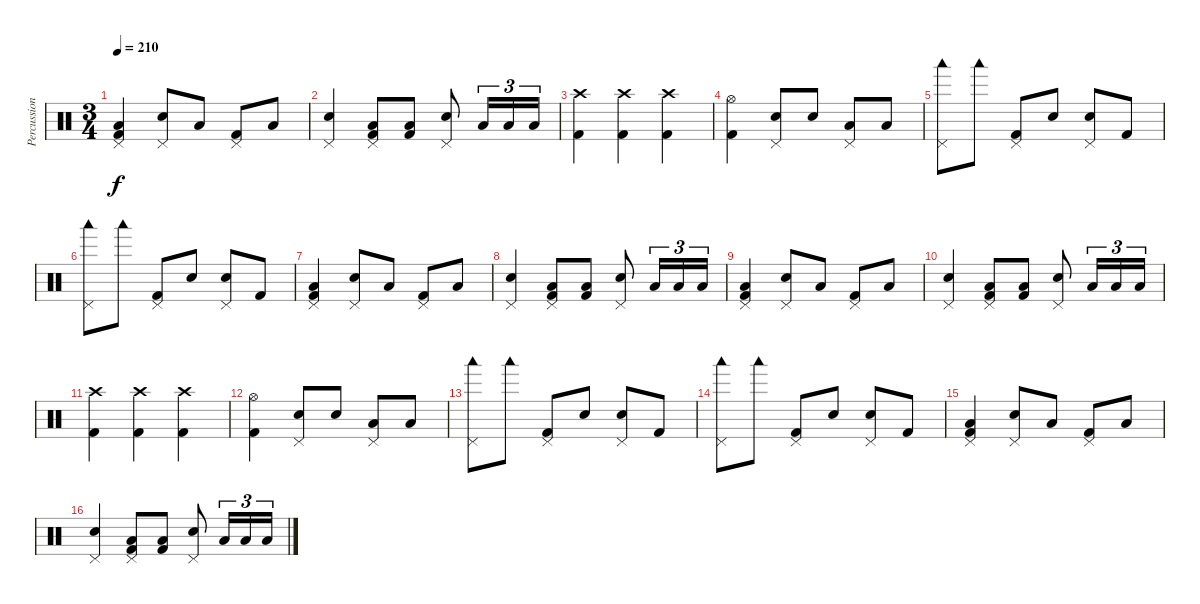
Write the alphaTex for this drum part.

\track ("Percussion" "Percussion") {instrument percussion}
\staff
\articulation defaults
\ts (3 4)
\tempo 210
\clef neutral
\ks c
("Pedal Hi-Hat (hit)" "Low Floor Tom (hit)" "Kick (hit) 2").4{dy f} ("Pedal Hi-Hat (hit)" "Electric Snare (hit)").8 "Low Floor Tom (hit)".8 ("Pedal Hi-Hat (hit)" "Kick (hit) 2").8 "Low Floor Tom (hit)".8 |
("Pedal Hi-Hat (hit)" "Electric Snare (hit)").4 ("Pedal Hi-Hat (hit)" "Low Floor Tom (hit)" "Kick (hit) 2").8 ("Low Floor Tom (hit)" "Kick (hit) 2").8 ("Pedal Hi-Hat (hit)" "Electric Snare (hit)").8 "Low Floor Tom (hit)".16{tu (3 2)} "Low Floor Tom (hit)".16{tu (3 2)} "Low Floor Tom (hit)".16{tu (3 2)} |
("Crash high (hit)" "Kick (hit) 2").4 ("Crash high (hit)" "Kick (hit) 2").4 ("Crash high (hit)" "Kick (hit) 2").4 |
("Hi-Hat (open)" "Kick (hit) 2").4 ("Pedal Hi-Hat (hit)" "Electric Snare (hit)").8 "Electric Snare (hit)".8 ("Pedal Hi-Hat (hit)" "Low Tom (hit)").8 "Low Floor Tom (hit)".8 |
("Pedal Hi-Hat (hit)" "Woodblock low (hit)").8 "Woodblock low (hit)".8 ("Pedal Hi-Hat (hit)" "Kick (hit) 2").8 "Electric Snare (hit)".8 ("Pedal Hi-Hat (hit)" "Electric Snare (hit)").8 "Kick (hit) 2".8 |
("Pedal Hi-Hat (hit)" "Woodblock low (hit)").8 "Woodblock low (hit)".8 ("Pedal Hi-Hat (hit)" "Kick (hit) 2").8 "Electric Snare (hit)".8 ("Pedal Hi-Hat (hit)" "Electric Snare (hit)").8 "Kick (hit) 2".8 |
("Pedal Hi-Hat (hit)" "Low Floor Tom (hit)" "Kick (hit) 2").4 ("Pedal Hi-Hat (hit)" "Electric Snare (hit)").8 "Low Floor Tom (hit)".8 ("Pedal Hi-Hat (hit)" "Kick (hit) 2").8 "Low Floor Tom (hit)".8 |
("Pedal Hi-Hat (hit)" "Electric Snare (hit)").4 ("Pedal Hi-Hat (hit)" "Low Floor Tom (hit)" "Kick (hit) 2").8 ("Low Floor Tom (hit)" "Kick (hit) 2").8 ("Pedal Hi-Hat (hit)" "Electric Snare (hit)").8 "Low Floor Tom (hit)".16{tu (3 2)} "Low Floor Tom (hit)".16{tu (3 2)} "Low Floor Tom (hit)".16{tu (3 2)} |
("Pedal Hi-Hat (hit)" "Low Floor Tom (hit)" "Kick (hit) 2").4 ("Pedal Hi-Hat (hit)" "Electric Snare (hit)").8 "Low Floor Tom (hit)".8 ("Pedal Hi-Hat (hit)" "Kick (hit) 2").8 "Low Floor Tom (hit)".8 |
("Pedal Hi-Hat (hit)" "Electric Snare (hit)").4 ("Pedal Hi-Hat (hit)" "Low Floor Tom (hit)" "Kick (hit) 2").8 ("Low Floor Tom (hit)" "Kick (hit) 2").8 ("Pedal Hi-Hat (hit)" "Electric Snare (hit)").8 "Low Floor Tom (hit)".16{tu (3 2)} "Low Floor Tom (hit)".16{tu (3 2)} "Low Floor Tom (hit)".16{tu (3 2)} |
("Crash high (hit)" "Kick (hit) 2").4 ("Crash high (hit)" "Kick (hit) 2").4 ("Crash high (hit)" "Kick (hit) 2").4 |
("Hi-Hat (open)" "Kick (hit) 2").4 ("Pedal Hi-Hat (hit)" "Electric Snare (hit)").8 "Electric Snare (hit)".8 ("Pedal Hi-Hat (hit)" "Low Tom (hit)").8 "Low Floor Tom (hit)".8 |
("Pedal Hi-Hat (hit)" "Woodblock low (hit)").8 "Woodblock low (hit)".8 ("Pedal Hi-Hat (hit)" "Kick (hit) 2").8 "Electric Snare (hit)".8 ("Pedal Hi-Hat (hit)" "Electric Snare (hit)").8 "Kick (hit) 2".8 |
("Pedal Hi-Hat (hit)" "Woodblock low (hit)").8 "Woodblock low (hit)".8 ("Pedal Hi-Hat (hit)" "Kick (hit) 2").8 "Electric Snare (hit)".8 ("Pedal Hi-Hat (hit)" "Electric Snare (hit)").8 "Kick (hit) 2".8 |
("Pedal Hi-Hat (hit)" "Low Floor Tom (hit)" "Kick (hit) 2").4 ("Pedal Hi-Hat (hit)" "Electric Snare (hit)").8 "Low Floor Tom (hit)".8 ("Pedal Hi-Hat (hit)" "Kick (hit) 2").8 "Low Floor Tom (hit)".8 |
("Pedal Hi-Hat (hit)" "Electric Snare (hit)").4 ("Pedal Hi-Hat (hit)" "Low Floor Tom (hit)" "Kick (hit) 2").8 ("Low Floor Tom (hit)" "Kick (hit) 2").8 ("Pedal Hi-Hat (hit)" "Electric Snare (hit)").8 "Low Floor Tom (hit)".16{tu (3 2)} "Low Floor Tom (hit)".16{tu (3 2)} "Low Floor Tom (hit)".16{tu (3 2)}
